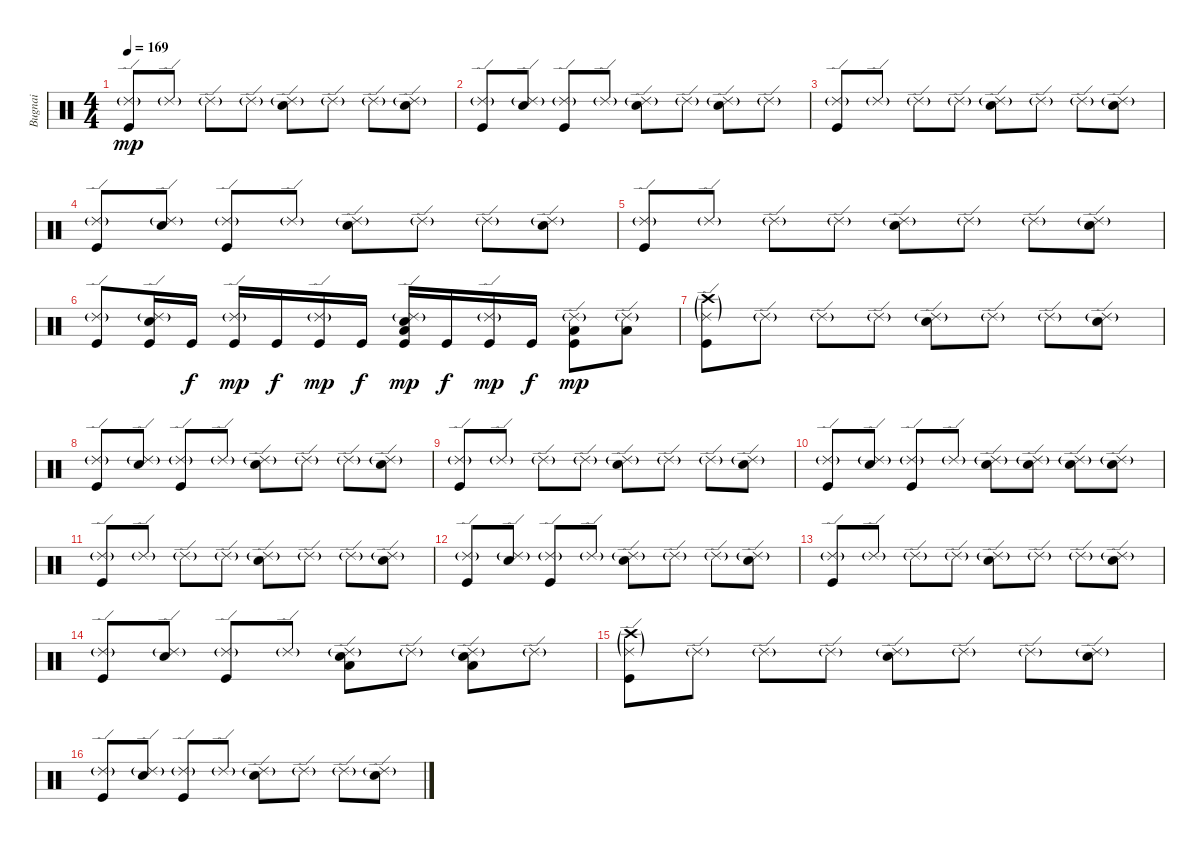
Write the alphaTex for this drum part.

\track ("Bugnai" "Bugnai") {instrument percussion}
\staff {score}
\articulation defaults
\ts (4 4)
\tempo 169
\clef neutral
\ks c
("Ride (edge) 2"{g} "Kick (hit)").8{dy mp} "Ride (edge) 2"{g}.8 "Ride (edge) 2"{g}.8 "Ride (edge) 2"{g}.8 ("Ride (edge) 2"{g} "Snare (hit) 2").8 "Ride (edge) 2"{g}.8 "Ride (edge) 2"{g}.8 ("Ride (edge) 2"{g} "Snare (hit) 2").8 |
("Ride (edge) 2"{g} "Kick (hit)").8 ("Ride (edge) 2"{g} "Snare (hit) 2").8 ("Ride (edge) 2"{g} "Kick (hit)").8 "Ride (edge) 2"{g}.8 ("Ride (edge) 2"{g} "Snare (hit) 2").8 "Ride (edge) 2"{g}.8 ("Ride (edge) 2"{g} "Snare (hit) 2").8 "Ride (edge) 2"{g}.8 |
("Ride (edge) 2"{g} "Kick (hit)").8 "Ride (edge) 2"{g}.8 "Ride (edge) 2"{g}.8 "Ride (edge) 2"{g}.8 ("Ride (edge) 2"{g} "Snare (hit) 2").8 "Ride (edge) 2"{g}.8 "Ride (edge) 2"{g}.8 ("Ride (edge) 2"{g} "Snare (hit) 2").8 |
("Ride (edge) 2"{g} "Kick (hit)").8 ("Ride (edge) 2"{g} "Snare (hit) 2").8 ("Ride (edge) 2"{g} "Kick (hit)").8 "Ride (edge) 2"{g}.8 ("Ride (edge) 2"{g} "Snare (hit) 2").8 "Ride (edge) 2"{g}.8 "Ride (edge) 2"{g}.8 ("Ride (edge) 2"{g} "Snare (hit) 2").8 |
("Ride (edge) 2"{g} "Kick (hit)").8 "Ride (edge) 2"{g}.8 "Ride (edge) 2"{g}.8 "Ride (edge) 2"{g}.8 ("Ride (edge) 2"{g} "Snare (hit) 2").8 "Ride (edge) 2"{g}.8 "Ride (edge) 2"{g}.8 ("Ride (edge) 2"{g} "Snare (hit) 2").8 |
("Ride (edge) 2"{g} "Kick (hit)").8 ("Ride (edge) 2"{g} "Snare (hit) 2" "Kick (hit)").16 "Kick (hit)".16{dy f} ("Ride (edge) 2"{g} "Kick (hit)").16{dy mp} "Kick (hit)".16{dy f} ("Ride (edge) 2"{g} "Kick (hit)").16{dy mp} "Kick (hit)".16{dy f} ("Ride (edge) 2"{g} "Snare (hit) 2" "Low Tom (hit)" "Kick (hit)").16{dy mp} "Kick (hit)".16{dy f} ("Ride (edge) 2"{g} "Kick (hit)").16{dy mp} "Kick (hit)".16{dy f} ("Ride (edge) 2"{g} "Low Tom (hit)" "Kick (hit)").8{dy mp} ("Ride (edge) 2"{g} "Low Tom (hit)").8 |
("Ride (edge) 2"{g} "Crash high (hit)"{g} "Kick (hit)").8 "Ride (edge) 2"{g}.8 "Ride (edge) 2"{g}.8 "Ride (edge) 2"{g}.8 ("Ride (edge) 2"{g} "Snare (hit) 2").8 "Ride (edge) 2"{g}.8 "Ride (edge) 2"{g}.8 ("Ride (edge) 2"{g} "Snare (hit) 2").8 |
("Ride (edge) 2"{g} "Kick (hit)").8 ("Ride (edge) 2"{g} "Snare (hit) 2").8 ("Ride (edge) 2"{g} "Kick (hit)").8 "Ride (edge) 2"{g}.8 ("Ride (edge) 2"{g} "Snare (hit) 2").8 "Ride (edge) 2"{g}.8 "Ride (edge) 2"{g}.8 ("Ride (edge) 2"{g} "Snare (hit) 2").8 |
("Ride (edge) 2"{g} "Kick (hit)").8 "Ride (edge) 2"{g}.8 "Ride (edge) 2"{g}.8 "Ride (edge) 2"{g}.8 ("Ride (edge) 2"{g} "Snare (hit) 2").8 "Ride (edge) 2"{g}.8 "Ride (edge) 2"{g}.8 ("Ride (edge) 2"{g} "Snare (hit) 2").8 |
("Ride (edge) 2"{g} "Kick (hit)").8 ("Ride (edge) 2"{g} "Snare (hit) 2").8 ("Ride (edge) 2"{g} "Kick (hit)").8 "Ride (edge) 2"{g}.8 ("Ride (edge) 2"{g} "Snare (hit) 2").8 ("Ride (edge) 2"{g} "Snare (hit) 2").8 ("Ride (edge) 2"{g} "Snare (hit) 2").8 ("Ride (edge) 2"{g} "Snare (hit) 2").8 |
("Ride (edge) 2"{g} "Kick (hit)").8 "Ride (edge) 2"{g}.8 "Ride (edge) 2"{g}.8 "Ride (edge) 2"{g}.8 ("Ride (edge) 2"{g} "Snare (hit) 2").8 "Ride (edge) 2"{g}.8 "Ride (edge) 2"{g}.8 ("Ride (edge) 2"{g} "Snare (hit) 2").8 |
("Ride (edge) 2"{g} "Kick (hit)").8 ("Ride (edge) 2"{g} "Snare (hit) 2").8 ("Ride (edge) 2"{g} "Kick (hit)").8 "Ride (edge) 2"{g}.8 ("Ride (edge) 2"{g} "Snare (hit) 2").8 "Ride (edge) 2"{g}.8 "Ride (edge) 2"{g}.8 ("Ride (edge) 2"{g} "Snare (hit) 2").8 |
("Ride (edge) 2"{g} "Kick (hit)").8 "Ride (edge) 2"{g}.8 "Ride (edge) 2"{g}.8 "Ride (edge) 2"{g}.8 ("Ride (edge) 2"{g} "Snare (hit) 2").8 "Ride (edge) 2"{g}.8 "Ride (edge) 2"{g}.8 ("Ride (edge) 2"{g} "Snare (hit) 2").8 |
("Ride (edge) 2"{g} "Kick (hit)").8 ("Ride (edge) 2"{g} "Snare (hit) 2").8 ("Ride (edge) 2"{g} "Kick (hit)").8 "Ride (edge) 2"{g}.8 ("Ride (edge) 2"{g} "Snare (hit) 2" "Low Tom (hit)").8 "Ride (edge) 2"{g}.8 ("Ride (edge) 2"{g} "Snare (hit) 2" "Low Tom (hit)").8 "Ride (edge) 2"{g}.8 |
("Ride (edge) 2"{g} "Crash high (hit)"{g} "Kick (hit)").8 "Ride (edge) 2"{g}.8 "Ride (edge) 2"{g}.8 "Ride (edge) 2"{g}.8 ("Ride (edge) 2"{g} "Snare (hit) 2").8 "Ride (edge) 2"{g}.8 "Ride (edge) 2"{g}.8 ("Ride (edge) 2"{g} "Snare (hit) 2").8 |
("Ride (edge) 2"{g} "Kick (hit)").8 ("Ride (edge) 2"{g} "Snare (hit) 2").8 ("Ride (edge) 2"{g} "Kick (hit)").8 "Ride (edge) 2"{g}.8 ("Ride (edge) 2"{g} "Snare (hit) 2").8 "Ride (edge) 2"{g}.8 "Ride (edge) 2"{g}.8 ("Ride (edge) 2"{g} "Snare (hit) 2").8
